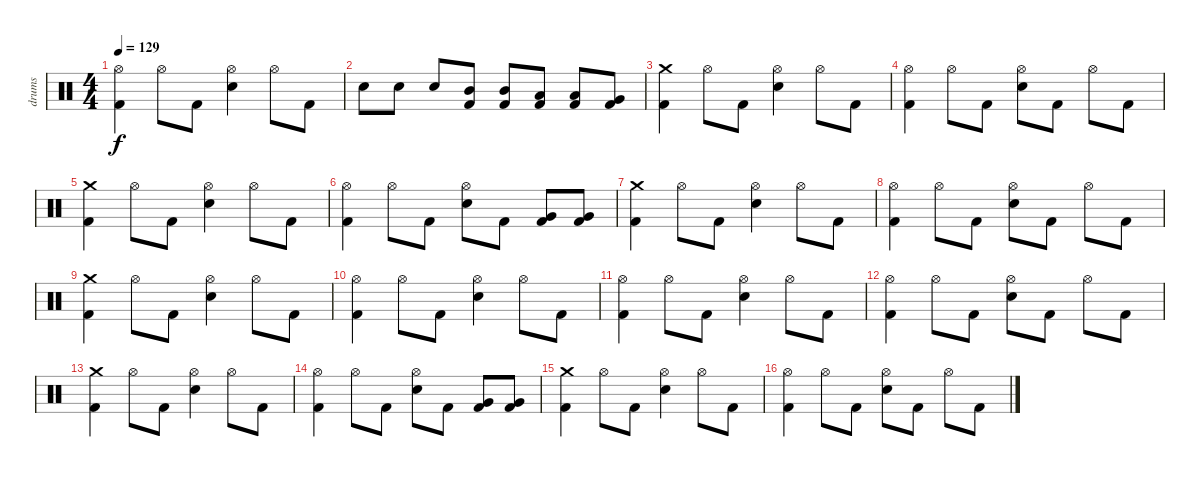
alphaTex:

\track ("drums" "drums") {instrument percussion}
\staff {score}
\articulation defaults
\ts (4 4)
\tempo 129
\clef neutral
\ks c
("Kick (hit) 2" "Hi-Hat (open)").4{dy f} "Hi-Hat (open)".8 "Kick (hit) 2".8 ("Hi-Hat (open)" "Snare (hit) 2").4 "Hi-Hat (open)".8 "Kick (hit) 2".8 |
"Snare (hit) 2".8 "Snare (hit) 2".8 "Snare (hit) 2".8 ("Kick (hit) 2" "Mid Tom (hit)").8 ("Kick (hit) 2" "Mid Tom (hit)").8 ("Kick (hit) 2" "Low Tom (hit)").8 ("Kick (hit) 2" "Low Tom (hit)").8 ("Kick (hit) 2" "Very Low Tom (hit)").8 |
("Kick (hit) 2" "Crash medium (hit)").4 "Hi-Hat (open)".8 "Kick (hit) 2".8 ("Hi-Hat (open)" "Snare (hit) 2").4 "Hi-Hat (open)".8 "Kick (hit) 2".8 |
("Kick (hit) 2" "Hi-Hat (open)").4 "Hi-Hat (open)".8 "Kick (hit) 2".8 ("Hi-Hat (open)" "Snare (hit) 2").8 "Kick (hit) 2".8 "Hi-Hat (open)".8 "Kick (hit) 2".8 |
("Kick (hit) 2" "Crash medium (hit)").4 "Hi-Hat (open)".8 "Kick (hit) 2".8 ("Hi-Hat (open)" "Snare (hit) 2").4 "Hi-Hat (open)".8 "Kick (hit) 2".8 |
("Kick (hit) 2" "Hi-Hat (open)").4 "Hi-Hat (open)".8 "Kick (hit) 2".8 ("Hi-Hat (open)" "Snare (hit) 2").8 "Kick (hit) 2".8 ("Kick (hit) 2" "Very Low Tom (hit)").8 ("Kick (hit) 2" "Very Low Tom (hit)").8 |
("Kick (hit) 2" "Crash medium (hit)").4 "Hi-Hat (open)".8 "Kick (hit) 2".8 ("Hi-Hat (open)" "Snare (hit) 2").4 "Hi-Hat (open)".8 "Kick (hit) 2".8 |
("Kick (hit) 2" "Hi-Hat (open)").4 "Hi-Hat (open)".8 "Kick (hit) 2".8 ("Hi-Hat (open)" "Snare (hit) 2").8 "Kick (hit) 2".8 "Hi-Hat (open)".8 "Kick (hit) 2".8 |
("Kick (hit) 2" "Crash medium (hit)").4 "Hi-Hat (open)".8 "Kick (hit) 2".8 ("Hi-Hat (open)" "Snare (hit) 2").4 "Hi-Hat (open)".8 "Kick (hit) 2".8 |
("Kick (hit) 2" "Hi-Hat (open)").4 "Hi-Hat (open)".8 "Kick (hit) 2".8 ("Hi-Hat (open)" "Snare (hit) 2").4 "Hi-Hat (open)".8 "Kick (hit) 2".8 |
("Kick (hit) 2" "Hi-Hat (open)").4 "Hi-Hat (open)".8 "Kick (hit) 2".8 ("Hi-Hat (open)" "Snare (hit) 2").4 "Hi-Hat (open)".8 "Kick (hit) 2".8 |
("Kick (hit) 2" "Hi-Hat (open)").4 "Hi-Hat (open)".8 "Kick (hit) 2".8 ("Hi-Hat (open)" "Snare (hit) 2").8 "Kick (hit) 2".8 "Hi-Hat (open)".8 "Kick (hit) 2".8 |
("Kick (hit) 2" "Crash medium (hit)").4 "Hi-Hat (open)".8 "Kick (hit) 2".8 ("Hi-Hat (open)" "Snare (hit) 2").4 "Hi-Hat (open)".8 "Kick (hit) 2".8 |
("Kick (hit) 2" "Hi-Hat (open)").4 "Hi-Hat (open)".8 "Kick (hit) 2".8 ("Hi-Hat (open)" "Snare (hit) 2").8 "Kick (hit) 2".8 ("Kick (hit) 2" "Very Low Tom (hit)").8 ("Kick (hit) 2" "Very Low Tom (hit)").8 |
("Kick (hit) 2" "Crash medium (hit)").4 "Hi-Hat (open)".8 "Kick (hit) 2".8 ("Hi-Hat (open)" "Snare (hit) 2").4 "Hi-Hat (open)".8 "Kick (hit) 2".8 |
("Kick (hit) 2" "Hi-Hat (open)").4 "Hi-Hat (open)".8 "Kick (hit) 2".8 ("Hi-Hat (open)" "Snare (hit) 2").8 "Kick (hit) 2".8 "Hi-Hat (open)".8 "Kick (hit) 2".8
